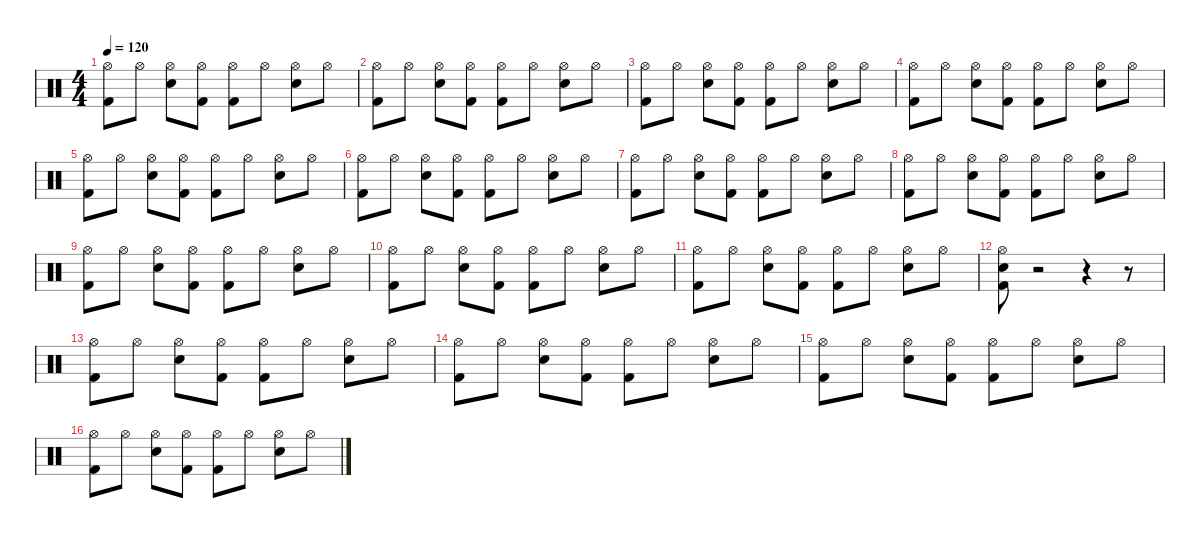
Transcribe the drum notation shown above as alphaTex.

\defaultSystemsLayout 4
\hideDynamics
\bracketExtendMode nobrackets
\singleTrackTrackNamePolicy hidden
\multiTrackTrackNamePolicy hidden
\firstSystemTrackNameMode fullname
\firstSystemTrackNameOrientation horizontal
\otherSystemsTrackNameOrientation horizontal
\track ("Percussion" "drm.") {instrument percussion}
\staff {score}
\articulation defaults
\ts (4 4)
\tempo 120
\clef neutral
\ks c
("Hi-Hat (open)" "Kick (hit) 2").8{dy f beam Down} "Hi-Hat (open)".8{beam Down} ("Hi-Hat (open)" "Snare (hit) 2").8{beam Down} ("Hi-Hat (open)" "Kick (hit) 2").8{beam Down} ("Hi-Hat (open)" "Kick (hit) 2").8{beam Down} "Hi-Hat (open)".8{beam Down} ("Hi-Hat (open)" "Snare (hit) 2").8{beam Down} "Hi-Hat (open)".8{beam Down} |
("Hi-Hat (open)" "Kick (hit) 2").8{beam Down} "Hi-Hat (open)".8{beam Down} ("Hi-Hat (open)" "Snare (hit) 2").8{beam Down} ("Hi-Hat (open)" "Kick (hit) 2").8{beam Down} ("Hi-Hat (open)" "Kick (hit) 2").8{beam Down} "Hi-Hat (open)".8{beam Down} ("Hi-Hat (open)" "Snare (hit) 2").8{beam Down} "Hi-Hat (open)".8{beam Down} |
("Hi-Hat (open)" "Kick (hit) 2").8{beam Down} "Hi-Hat (open)".8{beam Down} ("Hi-Hat (open)" "Snare (hit) 2").8{beam Down} ("Hi-Hat (open)" "Kick (hit) 2").8{beam Down} ("Hi-Hat (open)" "Kick (hit) 2").8{beam Down} "Hi-Hat (open)".8{beam Down} ("Hi-Hat (open)" "Snare (hit) 2").8{beam Down} "Hi-Hat (open)".8{beam Down} |
("Hi-Hat (open)" "Kick (hit) 2").8{beam Down} "Hi-Hat (open)".8{beam Down} ("Hi-Hat (open)" "Snare (hit) 2").8{beam Down} ("Hi-Hat (open)" "Kick (hit) 2").8{beam Down} ("Hi-Hat (open)" "Kick (hit) 2").8{beam Down} "Hi-Hat (open)".8{beam Down} ("Hi-Hat (open)" "Snare (hit) 2").8{beam Down} "Hi-Hat (open)".8{beam Down} |
("Hi-Hat (open)" "Kick (hit) 2").8{beam Down} "Hi-Hat (open)".8{beam Down} ("Hi-Hat (open)" "Snare (hit) 2").8{beam Down} ("Hi-Hat (open)" "Kick (hit) 2").8{beam Down} ("Hi-Hat (open)" "Kick (hit) 2").8{beam Down} "Hi-Hat (open)".8{beam Down} ("Hi-Hat (open)" "Snare (hit) 2").8{beam Down} "Hi-Hat (open)".8{beam Down} |
("Hi-Hat (open)" "Kick (hit) 2").8{beam Down} "Hi-Hat (open)".8{beam Down} ("Hi-Hat (open)" "Snare (hit) 2").8{beam Down} ("Hi-Hat (open)" "Kick (hit) 2").8{beam Down} ("Hi-Hat (open)" "Kick (hit) 2").8{beam Down} "Hi-Hat (open)".8{beam Down} ("Hi-Hat (open)" "Snare (hit) 2").8{beam Down} "Hi-Hat (open)".8{beam Down} |
("Hi-Hat (open)" "Kick (hit) 2").8{beam Down} "Hi-Hat (open)".8{beam Down} ("Hi-Hat (open)" "Snare (hit) 2").8{beam Down} ("Hi-Hat (open)" "Kick (hit) 2").8{beam Down} ("Hi-Hat (open)" "Kick (hit) 2").8{beam Down} "Hi-Hat (open)".8{beam Down} ("Hi-Hat (open)" "Snare (hit) 2").8{beam Down} "Hi-Hat (open)".8{beam Down} |
("Hi-Hat (open)" "Kick (hit) 2").8{beam Down} "Hi-Hat (open)".8{beam Down} ("Hi-Hat (open)" "Snare (hit) 2").8{beam Down} ("Hi-Hat (open)" "Kick (hit) 2").8{beam Down} ("Hi-Hat (open)" "Kick (hit) 2").8{beam Down} "Hi-Hat (open)".8{beam Down} ("Hi-Hat (open)" "Snare (hit) 2").8{beam Down} "Hi-Hat (open)".8{beam Down} |
("Hi-Hat (open)" "Kick (hit) 2").8{beam Down} "Hi-Hat (open)".8{beam Down} ("Hi-Hat (open)" "Snare (hit) 2").8{beam Down} ("Hi-Hat (open)" "Kick (hit) 2").8{beam Down} ("Hi-Hat (open)" "Kick (hit) 2").8{beam Down} "Hi-Hat (open)".8{beam Down} ("Hi-Hat (open)" "Snare (hit) 2").8{beam Down} "Hi-Hat (open)".8{beam Down} |
("Hi-Hat (open)" "Kick (hit) 2").8{beam Down} "Hi-Hat (open)".8{beam Down} ("Hi-Hat (open)" "Snare (hit) 2").8{beam Down} ("Hi-Hat (open)" "Kick (hit) 2").8{beam Down} ("Hi-Hat (open)" "Kick (hit) 2").8{beam Down} "Hi-Hat (open)".8{beam Down} ("Hi-Hat (open)" "Snare (hit) 2").8{beam Down} "Hi-Hat (open)".8{beam Down} |
("Hi-Hat (open)" "Kick (hit) 2").8{beam Down} "Hi-Hat (open)".8{beam Down} ("Hi-Hat (open)" "Snare (hit) 2").8{beam Down} ("Hi-Hat (open)" "Kick (hit) 2").8{beam Down} ("Hi-Hat (open)" "Kick (hit) 2").8{beam Down} "Hi-Hat (open)".8{beam Down} ("Hi-Hat (open)" "Snare (hit) 2").8{beam Down} "Hi-Hat (open)".8{beam Down} |
("Hi-Hat (open)" "Snare (hit) 2" "Kick (hit) 2").8{beam Down} r.2{beam Down} r.4{beam Down} r.8{beam Down} |
("Hi-Hat (open)" "Kick (hit) 2").8{beam Down} "Hi-Hat (open)".8{beam Down} ("Hi-Hat (open)" "Snare (hit) 2").8{beam Down} ("Hi-Hat (open)" "Kick (hit) 2").8{beam Down} ("Hi-Hat (open)" "Kick (hit) 2").8{beam Down} "Hi-Hat (open)".8{beam Down} ("Hi-Hat (open)" "Snare (hit) 2").8{beam Down} "Hi-Hat (open)".8{beam Down} |
("Hi-Hat (open)" "Kick (hit) 2").8{beam Down} "Hi-Hat (open)".8{beam Down} ("Hi-Hat (open)" "Snare (hit) 2").8{beam Down} ("Hi-Hat (open)" "Kick (hit) 2").8{beam Down} ("Hi-Hat (open)" "Kick (hit) 2").8{beam Down} "Hi-Hat (open)".8{beam Down} ("Hi-Hat (open)" "Snare (hit) 2").8{beam Down} "Hi-Hat (open)".8{beam Down} |
("Hi-Hat (open)" "Kick (hit) 2").8{beam Down} "Hi-Hat (open)".8{beam Down} ("Hi-Hat (open)" "Snare (hit) 2").8{beam Down} ("Hi-Hat (open)" "Kick (hit) 2").8{beam Down} ("Hi-Hat (open)" "Kick (hit) 2").8{beam Down} "Hi-Hat (open)".8{beam Down} ("Hi-Hat (open)" "Snare (hit) 2").8{beam Down} "Hi-Hat (open)".8{beam Down} |
("Hi-Hat (open)" "Kick (hit) 2").8{beam Down} "Hi-Hat (open)".8{beam Down} ("Hi-Hat (open)" "Snare (hit) 2").8{beam Down} ("Hi-Hat (open)" "Kick (hit) 2").8{beam Down} ("Hi-Hat (open)" "Kick (hit) 2").8{beam Down} "Hi-Hat (open)".8{beam Down} ("Hi-Hat (open)" "Snare (hit) 2").8{beam Down} "Hi-Hat (open)".8{beam Down}
